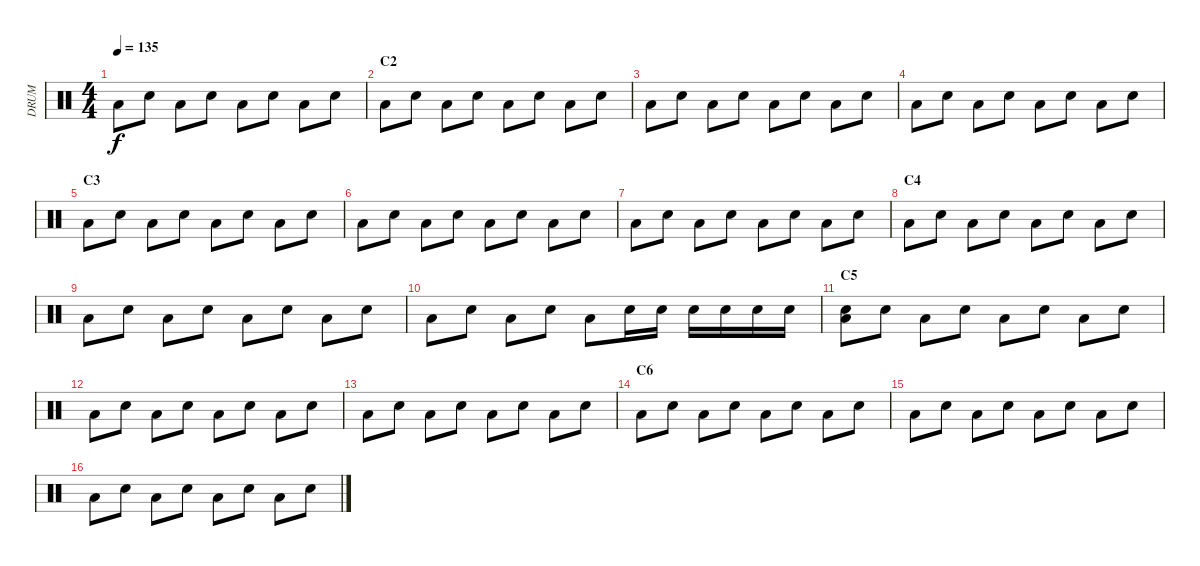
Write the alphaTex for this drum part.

\track ("DRUM" "DRUM") {instrument percussion}
\staff {score}
\articulation defaults
\ts (4 4)
\tempo 135
\clef neutral
\ks c "Low Floor Tom (hit)".8{dy f} "Electric Snare (hit)".8 "Low Floor Tom (hit)".8 "Electric Snare (hit)".8 "Low Floor Tom (hit)".8 "Electric Snare (hit)".8 "Low Floor Tom (hit)".8 "Electric Snare (hit)".8
|
\section ("" "C2")
"Low Floor Tom (hit)".8 "Electric Snare (hit)".8 "Low Floor Tom (hit)".8 "Electric Snare (hit)".8 "Low Floor Tom (hit)".8 "Electric Snare (hit)".8 "Low Floor Tom (hit)".8 "Electric Snare (hit)".8 |
"Low Floor Tom (hit)".8 "Electric Snare (hit)".8 "Low Floor Tom (hit)".8 "Electric Snare (hit)".8 "Low Floor Tom (hit)".8 "Electric Snare (hit)".8 "Low Floor Tom (hit)".8 "Electric Snare (hit)".8 |
"Low Floor Tom (hit)".8 "Electric Snare (hit)".8 "Low Floor Tom (hit)".8 "Electric Snare (hit)".8 "Low Floor Tom (hit)".8 "Electric Snare (hit)".8 "Low Floor Tom (hit)".8 "Electric Snare (hit)".8 |
\section ("" "C3")
"Low Floor Tom (hit)".8 "Electric Snare (hit)".8 "Low Floor Tom (hit)".8 "Electric Snare (hit)".8 "Low Floor Tom (hit)".8 "Electric Snare (hit)".8 "Low Floor Tom (hit)".8 "Electric Snare (hit)".8 |
"Low Floor Tom (hit)".8 "Electric Snare (hit)".8 "Low Floor Tom (hit)".8 "Electric Snare (hit)".8 "Low Floor Tom (hit)".8 "Electric Snare (hit)".8 "Low Floor Tom (hit)".8 "Electric Snare (hit)".8 |
"Low Floor Tom (hit)".8 "Electric Snare (hit)".8 "Low Floor Tom (hit)".8 "Electric Snare (hit)".8 "Low Floor Tom (hit)".8 "Electric Snare (hit)".8 "Low Floor Tom (hit)".8 "Electric Snare (hit)".8 |
\section ("" "C4")
"Low Floor Tom (hit)".8 "Electric Snare (hit)".8 "Low Floor Tom (hit)".8 "Electric Snare (hit)".8 "Low Floor Tom (hit)".8 "Electric Snare (hit)".8 "Low Floor Tom (hit)".8 "Electric Snare (hit)".8 |
"Low Floor Tom (hit)".8 "Electric Snare (hit)".8 "Low Floor Tom (hit)".8 "Electric Snare (hit)".8 "Low Floor Tom (hit)".8 "Electric Snare (hit)".8 "Low Floor Tom (hit)".8 "Electric Snare (hit)".8 |
"Low Floor Tom (hit)".8 "Electric Snare (hit)".8 "Low Floor Tom (hit)".8 "Electric Snare (hit)".8 "Low Floor Tom (hit)".8 "Electric Snare (hit)".16 "Electric Snare (hit)".16 "Electric Snare (hit)".16 "Electric Snare (hit)".16 "Electric Snare (hit)".16 "Electric Snare (hit)".16 |
\section ("" "C5")
("Low Floor Tom (hit)" "Electric Snare (hit)").8 "Electric Snare (hit)".8 "Low Floor Tom (hit)".8 "Electric Snare (hit)".8 "Low Floor Tom (hit)".8 "Electric Snare (hit)".8 "Low Floor Tom (hit)".8 "Electric Snare (hit)".8 |
"Low Floor Tom (hit)".8 "Electric Snare (hit)".8 "Low Floor Tom (hit)".8 "Electric Snare (hit)".8 "Low Floor Tom (hit)".8 "Electric Snare (hit)".8 "Low Floor Tom (hit)".8 "Electric Snare (hit)".8 |
"Low Floor Tom (hit)".8 "Electric Snare (hit)".8 "Low Floor Tom (hit)".8 "Electric Snare (hit)".8 "Low Floor Tom (hit)".8 "Electric Snare (hit)".8 "Low Floor Tom (hit)".8 "Electric Snare (hit)".8 |
\section ("" "C6")
"Low Floor Tom (hit)".8 "Electric Snare (hit)".8 "Low Floor Tom (hit)".8 "Electric Snare (hit)".8 "Low Floor Tom (hit)".8 "Electric Snare (hit)".8 "Low Floor Tom (hit)".8 "Electric Snare (hit)".8 |
"Low Floor Tom (hit)".8 "Electric Snare (hit)".8 "Low Floor Tom (hit)".8 "Electric Snare (hit)".8 "Low Floor Tom (hit)".8 "Electric Snare (hit)".8 "Low Floor Tom (hit)".8 "Electric Snare (hit)".8 |
"Low Floor Tom (hit)".8 "Electric Snare (hit)".8 "Low Floor Tom (hit)".8 "Electric Snare (hit)".8 "Low Floor Tom (hit)".8 "Electric Snare (hit)".8 "Low Floor Tom (hit)".8 "Electric Snare (hit)".8
